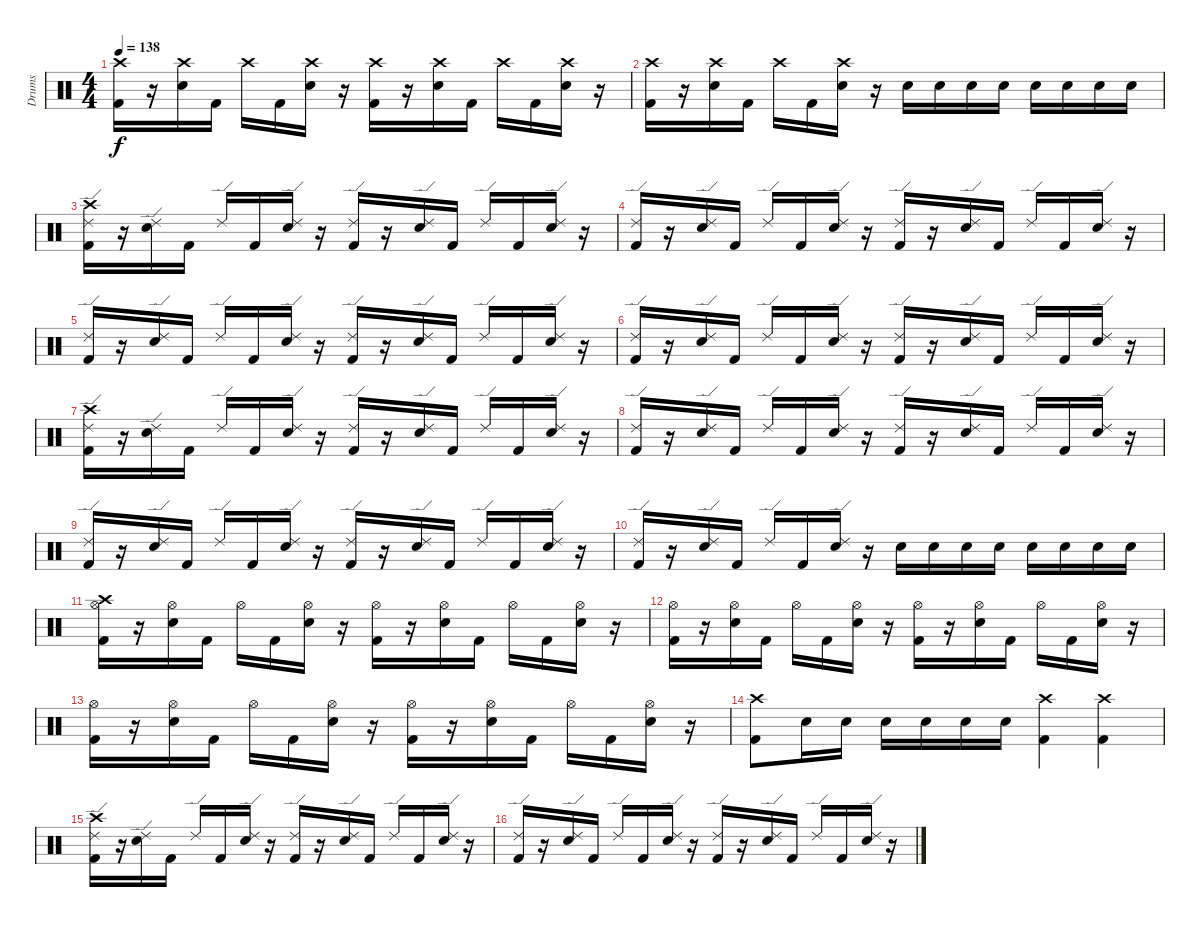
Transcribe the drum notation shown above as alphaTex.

\track ("Drums" "Drums") {instrument percussion}
\staff {score}
\articulation defaults
\ts (4 4)
\tempo 138
\clef neutral
\ks c
("Crash high (hit)" "Kick (hit) 2").16{dy f} r.16 ("Crash high (hit)" "Snare (hit) 2").16 "Kick (hit) 2".16 "Crash high (hit)".16 "Kick (hit) 2".16 ("Crash high (hit)" "Snare (hit) 2").16 r.16 ("Crash high (hit)" "Kick (hit) 2").16 r.16 ("Crash high (hit)" "Snare (hit) 2").16 "Kick (hit) 2".16 "Crash high (hit)".16 "Kick (hit) 2".16 ("Crash high (hit)" "Snare (hit) 2").16 r.16 |
("Crash high (hit)" "Kick (hit) 2").16 r.16 ("Crash high (hit)" "Snare (hit) 2").16 "Kick (hit) 2".16 "Crash high (hit)".16 "Kick (hit) 2".16 ("Crash high (hit)" "Snare (hit) 2").16 r.16 "Snare (hit) 2".16 "Snare (hit) 2".16 "Snare (hit) 2".16 "Snare (hit) 2".16 "Snare (hit) 2".16 "Snare (hit) 2".16 "Snare (hit) 2".16 "Snare (hit) 2".16 |
("Crash high (hit)" "Ride (edge) 2" "Kick (hit) 2").16 r.16 ("Ride (edge) 2" "Snare (hit) 2").16 "Kick (hit) 2".16 "Ride (edge) 2".16 "Kick (hit) 2".16 ("Ride (edge) 2" "Snare (hit) 2").16 r.16 ("Ride (edge) 2" "Kick (hit) 2").16 r.16 ("Ride (edge) 2" "Snare (hit) 2").16 "Kick (hit) 2".16 "Ride (edge) 2".16 "Kick (hit) 2".16 ("Ride (edge) 2" "Snare (hit) 2").16 r.16 |
("Ride (edge) 2" "Kick (hit) 2").16 r.16 ("Ride (edge) 2" "Snare (hit) 2").16 "Kick (hit) 2".16 "Ride (edge) 2".16 "Kick (hit) 2".16 ("Ride (edge) 2" "Snare (hit) 2").16 r.16 ("Ride (edge) 2" "Kick (hit) 2").16 r.16 ("Ride (edge) 2" "Snare (hit) 2").16 "Kick (hit) 2".16 "Ride (edge) 2".16 "Kick (hit) 2".16 ("Ride (edge) 2" "Snare (hit) 2").16 r.16 |
("Ride (edge) 2" "Kick (hit) 2").16 r.16 ("Ride (edge) 2" "Snare (hit) 2").16 "Kick (hit) 2".16 "Ride (edge) 2".16 "Kick (hit) 2".16 ("Ride (edge) 2" "Snare (hit) 2").16 r.16 ("Ride (edge) 2" "Kick (hit) 2").16 r.16 ("Ride (edge) 2" "Snare (hit) 2").16 "Kick (hit) 2".16 "Ride (edge) 2".16 "Kick (hit) 2".16 ("Ride (edge) 2" "Snare (hit) 2").16 r.16 |
("Ride (edge) 2" "Kick (hit) 2").16 r.16 ("Ride (edge) 2" "Snare (hit) 2").16 "Kick (hit) 2".16 "Ride (edge) 2".16 "Kick (hit) 2".16 ("Ride (edge) 2" "Snare (hit) 2").16 r.16 ("Ride (edge) 2" "Kick (hit) 2").16 r.16 ("Ride (edge) 2" "Snare (hit) 2").16 "Kick (hit) 2".16 "Ride (edge) 2".16 "Kick (hit) 2".16 ("Ride (edge) 2" "Snare (hit) 2").16 r.16 |
("Crash high (hit)" "Ride (edge) 2" "Kick (hit) 2").16 r.16 ("Ride (edge) 2" "Snare (hit) 2").16 "Kick (hit) 2".16 "Ride (edge) 2".16 "Kick (hit) 2".16 ("Ride (edge) 2" "Snare (hit) 2").16 r.16 ("Ride (edge) 2" "Kick (hit) 2").16 r.16 ("Ride (edge) 2" "Snare (hit) 2").16 "Kick (hit) 2".16 "Ride (edge) 2".16 "Kick (hit) 2".16 ("Ride (edge) 2" "Snare (hit) 2").16 r.16 |
("Ride (edge) 2" "Kick (hit) 2").16 r.16 ("Ride (edge) 2" "Snare (hit) 2").16 "Kick (hit) 2".16 "Ride (edge) 2".16 "Kick (hit) 2".16 ("Ride (edge) 2" "Snare (hit) 2").16 r.16 ("Ride (edge) 2" "Kick (hit) 2").16 r.16 ("Ride (edge) 2" "Snare (hit) 2").16 "Kick (hit) 2".16 "Ride (edge) 2".16 "Kick (hit) 2".16 ("Ride (edge) 2" "Snare (hit) 2").16 r.16 |
("Ride (edge) 2" "Kick (hit) 2").16 r.16 ("Ride (edge) 2" "Snare (hit) 2").16 "Kick (hit) 2".16 "Ride (edge) 2".16 "Kick (hit) 2".16 ("Ride (edge) 2" "Snare (hit) 2").16 r.16 ("Ride (edge) 2" "Kick (hit) 2").16 r.16 ("Ride (edge) 2" "Snare (hit) 2").16 "Kick (hit) 2".16 "Ride (edge) 2".16 "Kick (hit) 2".16 ("Ride (edge) 2" "Snare (hit) 2").16 r.16 |
("Ride (edge) 2" "Kick (hit) 2").16 r.16 ("Ride (edge) 2" "Snare (hit) 2").16 "Kick (hit) 2".16 "Ride (edge) 2".16 "Kick (hit) 2".16 ("Ride (edge) 2" "Snare (hit) 2").16 r.16 "Snare (hit) 2".16 "Snare (hit) 2".16 "Snare (hit) 2".16 "Snare (hit) 2".16 "Snare (hit) 2".16 "Snare (hit) 2".16 "Snare (hit) 2".16 "Snare (hit) 2".16 |
("Crash high (hit)" "Hi-Hat (open)" "Kick (hit) 2").16 r.16 ("Hi-Hat (open)" "Snare (hit) 2").16 "Kick (hit) 2".16 "Hi-Hat (open)".16 "Kick (hit) 2".16 ("Hi-Hat (open)" "Snare (hit) 2").16 r.16 ("Hi-Hat (open)" "Kick (hit) 2").16 r.16 ("Hi-Hat (open)" "Snare (hit) 2").16 "Kick (hit) 2".16 "Hi-Hat (open)".16 "Kick (hit) 2".16 ("Hi-Hat (open)" "Snare (hit) 2").16 r.16 |
("Hi-Hat (open)" "Kick (hit) 2").16 r.16 ("Hi-Hat (open)" "Snare (hit) 2").16 "Kick (hit) 2".16 "Hi-Hat (open)".16 "Kick (hit) 2".16 ("Hi-Hat (open)" "Snare (hit) 2").16 r.16 ("Hi-Hat (open)" "Kick (hit) 2").16 r.16 ("Hi-Hat (open)" "Snare (hit) 2").16 "Kick (hit) 2".16 "Hi-Hat (open)".16 "Kick (hit) 2".16 ("Hi-Hat (open)" "Snare (hit) 2").16 r.16 |
("Hi-Hat (open)" "Kick (hit) 2").16 r.16 ("Hi-Hat (open)" "Snare (hit) 2").16 "Kick (hit) 2".16 "Hi-Hat (open)".16 "Kick (hit) 2".16 ("Hi-Hat (open)" "Snare (hit) 2").16 r.16 ("Hi-Hat (open)" "Kick (hit) 2").16 r.16 ("Hi-Hat (open)" "Snare (hit) 2").16 "Kick (hit) 2".16 "Hi-Hat (open)".16 "Kick (hit) 2".16 ("Hi-Hat (open)" "Snare (hit) 2").16 r.16 |
("Crash high (hit)" "Kick (hit) 2").8 "Snare (hit) 2".16 "Snare (hit) 2".16 "Snare (hit) 2".16 "Snare (hit) 2".16 "Snare (hit) 2".16 "Snare (hit) 2".16 ("Crash high (hit)" "Kick (hit) 2").4 ("Crash high (hit)" "Kick (hit) 2").4 |
("Crash high (hit)" "Ride (edge) 2" "Kick (hit) 2").16 r.16 ("Ride (edge) 2" "Snare (hit) 2").16 "Kick (hit) 2".16 "Ride (edge) 2".16 "Kick (hit) 2".16 ("Ride (edge) 2" "Snare (hit) 2").16 r.16 ("Ride (edge) 2" "Kick (hit) 2").16 r.16 ("Ride (edge) 2" "Snare (hit) 2").16 "Kick (hit) 2".16 "Ride (edge) 2".16 "Kick (hit) 2".16 ("Ride (edge) 2" "Snare (hit) 2").16 r.16 |
("Ride (edge) 2" "Kick (hit) 2").16 r.16 ("Ride (edge) 2" "Snare (hit) 2").16 "Kick (hit) 2".16 "Ride (edge) 2".16 "Kick (hit) 2".16 ("Ride (edge) 2" "Snare (hit) 2").16 r.16 ("Ride (edge) 2" "Kick (hit) 2").16 r.16 ("Ride (edge) 2" "Snare (hit) 2").16 "Kick (hit) 2".16 "Ride (edge) 2".16 "Kick (hit) 2".16 ("Ride (edge) 2" "Snare (hit) 2").16 r.16
